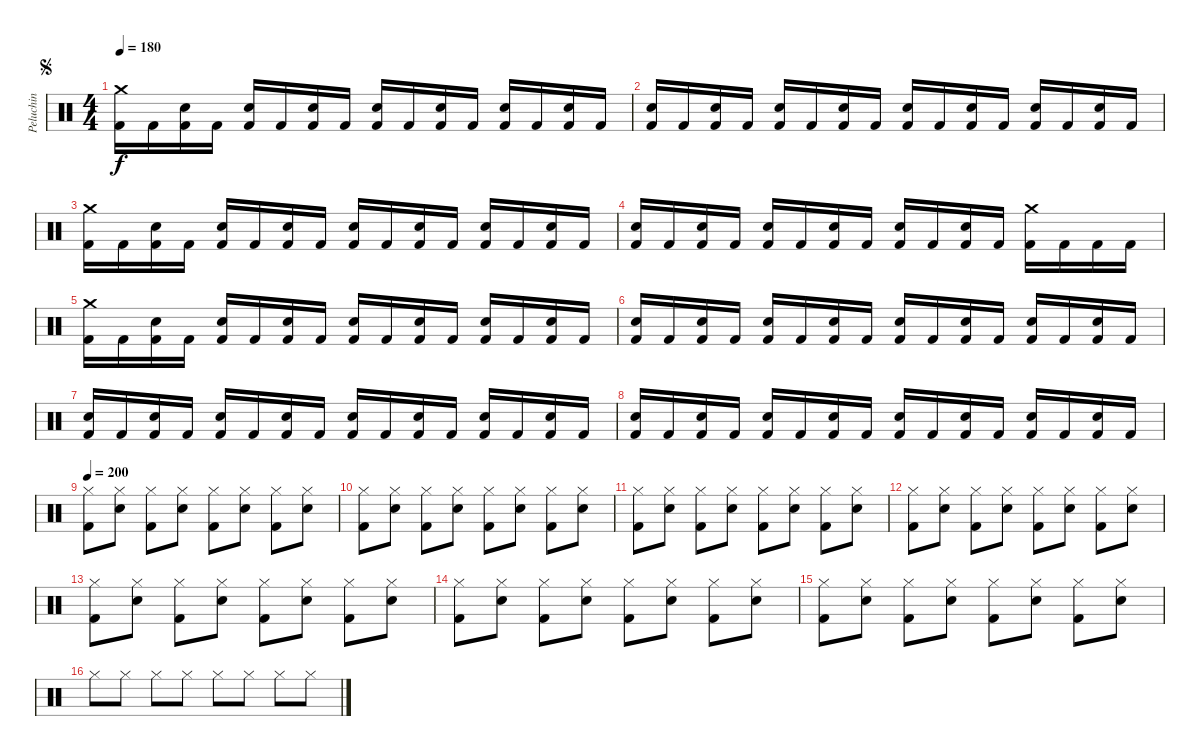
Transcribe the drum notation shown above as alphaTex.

\track ("Peluchin" "Peluchin") {instrument percussion}
\staff {score}
\articulation defaults
\ts (4 4)
\jump segno
\tempo 180
\clef neutral
\ks c
("Kick (hit) 2" "Crash medium (hit)").16{dy f} "Kick (hit) 2".16 ("Kick (hit) 2" "Electric Snare (hit)").16 "Kick (hit) 2".16 ("Kick (hit) 2" "Electric Snare (hit)").16 "Kick (hit) 2".16 ("Kick (hit) 2" "Electric Snare (hit)").16 "Kick (hit) 2".16 ("Kick (hit) 2" "Electric Snare (hit)").16 "Kick (hit) 2".16 ("Kick (hit) 2" "Electric Snare (hit)").16 "Kick (hit) 2".16 ("Kick (hit) 2" "Electric Snare (hit)").16 "Kick (hit) 2".16 ("Kick (hit) 2" "Electric Snare (hit)").16 "Kick (hit) 2".16 |
("Kick (hit) 2" "Electric Snare (hit)").16 "Kick (hit) 2".16 ("Kick (hit) 2" "Electric Snare (hit)").16 "Kick (hit) 2".16 ("Kick (hit) 2" "Electric Snare (hit)").16 "Kick (hit) 2".16 ("Kick (hit) 2" "Electric Snare (hit)").16 "Kick (hit) 2".16 ("Kick (hit) 2" "Electric Snare (hit)").16 "Kick (hit) 2".16 ("Kick (hit) 2" "Electric Snare (hit)").16 "Kick (hit) 2".16 ("Kick (hit) 2" "Electric Snare (hit)").16 "Kick (hit) 2".16 ("Kick (hit) 2" "Electric Snare (hit)").16 "Kick (hit) 2".16 |
("Kick (hit) 2" "Crash medium (hit)").16 "Kick (hit) 2".16 ("Kick (hit) 2" "Electric Snare (hit)").16 "Kick (hit) 2".16 ("Kick (hit) 2" "Electric Snare (hit)").16 "Kick (hit) 2".16 ("Kick (hit) 2" "Electric Snare (hit)").16 "Kick (hit) 2".16 ("Kick (hit) 2" "Electric Snare (hit)").16 "Kick (hit) 2".16 ("Kick (hit) 2" "Electric Snare (hit)").16 "Kick (hit) 2".16 ("Kick (hit) 2" "Electric Snare (hit)").16 "Kick (hit) 2".16 ("Kick (hit) 2" "Electric Snare (hit)").16 "Kick (hit) 2".16 |
("Kick (hit) 2" "Electric Snare (hit)").16 "Kick (hit) 2".16 ("Kick (hit) 2" "Electric Snare (hit)").16 "Kick (hit) 2".16 ("Kick (hit) 2" "Electric Snare (hit)").16 "Kick (hit) 2".16 ("Kick (hit) 2" "Electric Snare (hit)").16 "Kick (hit) 2".16 ("Kick (hit) 2" "Electric Snare (hit)").16 "Kick (hit) 2".16 ("Kick (hit) 2" "Electric Snare (hit)").16 "Kick (hit) 2".16 ("Kick (hit) 2" "Crash medium (hit)").16 "Kick (hit) 2".16 "Kick (hit) 2".16 "Kick (hit) 2".16 |
("Kick (hit) 2" "Crash medium (hit)").16 "Kick (hit) 2".16 ("Kick (hit) 2" "Electric Snare (hit)").16 "Kick (hit) 2".16 ("Kick (hit) 2" "Electric Snare (hit)").16 "Kick (hit) 2".16 ("Kick (hit) 2" "Electric Snare (hit)").16 "Kick (hit) 2".16 ("Kick (hit) 2" "Electric Snare (hit)").16 "Kick (hit) 2".16 ("Kick (hit) 2" "Electric Snare (hit)").16 "Kick (hit) 2".16 ("Kick (hit) 2" "Electric Snare (hit)").16 "Kick (hit) 2".16 ("Kick (hit) 2" "Electric Snare (hit)").16 "Kick (hit) 2".16 |
("Kick (hit) 2" "Electric Snare (hit)").16 "Kick (hit) 2".16 ("Kick (hit) 2" "Electric Snare (hit)").16 "Kick (hit) 2".16 ("Kick (hit) 2" "Electric Snare (hit)").16 "Kick (hit) 2".16 ("Kick (hit) 2" "Electric Snare (hit)").16 "Kick (hit) 2".16 ("Kick (hit) 2" "Electric Snare (hit)").16 "Kick (hit) 2".16 ("Kick (hit) 2" "Electric Snare (hit)").16 "Kick (hit) 2".16 ("Kick (hit) 2" "Electric Snare (hit)").16 "Kick (hit) 2".16 ("Kick (hit) 2" "Electric Snare (hit)").16 "Kick (hit) 2".16 |
("Kick (hit) 2" "Electric Snare (hit)").16 "Kick (hit) 2".16 ("Kick (hit) 2" "Electric Snare (hit)").16 "Kick (hit) 2".16 ("Kick (hit) 2" "Electric Snare (hit)").16 "Kick (hit) 2".16 ("Kick (hit) 2" "Electric Snare (hit)").16 "Kick (hit) 2".16 ("Kick (hit) 2" "Electric Snare (hit)").16 "Kick (hit) 2".16 ("Kick (hit) 2" "Electric Snare (hit)").16 "Kick (hit) 2".16 ("Kick (hit) 2" "Electric Snare (hit)").16 "Kick (hit) 2".16 ("Kick (hit) 2" "Electric Snare (hit)").16 "Kick (hit) 2".16 |
("Kick (hit) 2" "Electric Snare (hit)").16 "Kick (hit) 2".16 ("Kick (hit) 2" "Electric Snare (hit)").16 "Kick (hit) 2".16 ("Kick (hit) 2" "Electric Snare (hit)").16 "Kick (hit) 2".16 ("Kick (hit) 2" "Electric Snare (hit)").16 "Kick (hit) 2".16 ("Kick (hit) 2" "Electric Snare (hit)").16 "Kick (hit) 2".16 ("Kick (hit) 2" "Electric Snare (hit)").16 "Kick (hit) 2".16 ("Kick (hit) 2" "Electric Snare (hit)").16 "Kick (hit) 2".16 ("Kick (hit) 2" "Electric Snare (hit)").16 "Kick (hit) 2".16 |
\tempo 200
("Kick (hit) 2" "Hi-Hat (closed)").8 ("Electric Snare (hit)" "Hi-Hat (closed)").8 ("Kick (hit) 2" "Hi-Hat (closed)").8 ("Electric Snare (hit)" "Hi-Hat (closed)").8 ("Kick (hit) 2" "Hi-Hat (closed)").8 ("Electric Snare (hit)" "Hi-Hat (closed)").8 ("Kick (hit) 2" "Hi-Hat (closed)").8 ("Electric Snare (hit)" "Hi-Hat (closed)").8 |
("Kick (hit) 2" "Hi-Hat (closed)").8 ("Electric Snare (hit)" "Hi-Hat (closed)").8 ("Kick (hit) 2" "Hi-Hat (closed)").8 ("Electric Snare (hit)" "Hi-Hat (closed)").8 ("Kick (hit) 2" "Hi-Hat (closed)").8 ("Electric Snare (hit)" "Hi-Hat (closed)").8 ("Kick (hit) 2" "Hi-Hat (closed)").8 ("Electric Snare (hit)" "Hi-Hat (closed)").8 |
("Kick (hit) 2" "Hi-Hat (closed)").8 ("Electric Snare (hit)" "Hi-Hat (closed)").8 ("Kick (hit) 2" "Hi-Hat (closed)").8 ("Electric Snare (hit)" "Hi-Hat (closed)").8 ("Kick (hit) 2" "Hi-Hat (closed)").8 ("Electric Snare (hit)" "Hi-Hat (closed)").8 ("Kick (hit) 2" "Hi-Hat (closed)").8 ("Electric Snare (hit)" "Hi-Hat (closed)").8 |
("Kick (hit) 2" "Hi-Hat (closed)").8 ("Electric Snare (hit)" "Hi-Hat (closed)").8 ("Kick (hit) 2" "Hi-Hat (closed)").8 ("Electric Snare (hit)" "Hi-Hat (closed)").8 ("Kick (hit) 2" "Hi-Hat (closed)").8 ("Electric Snare (hit)" "Hi-Hat (closed)").8 ("Kick (hit) 2" "Hi-Hat (closed)").8 ("Electric Snare (hit)" "Hi-Hat (closed)").8 |
("Kick (hit) 2" "Hi-Hat (closed)").8 ("Electric Snare (hit)" "Hi-Hat (closed)").8 ("Kick (hit) 2" "Hi-Hat (closed)").8 ("Electric Snare (hit)" "Hi-Hat (closed)").8 ("Kick (hit) 2" "Hi-Hat (closed)").8 ("Electric Snare (hit)" "Hi-Hat (closed)").8 ("Kick (hit) 2" "Hi-Hat (closed)").8 ("Electric Snare (hit)" "Hi-Hat (closed)").8 |
("Kick (hit) 2" "Hi-Hat (closed)").8 ("Electric Snare (hit)" "Hi-Hat (closed)").8 ("Kick (hit) 2" "Hi-Hat (closed)").8 ("Electric Snare (hit)" "Hi-Hat (closed)").8 ("Kick (hit) 2" "Hi-Hat (closed)").8 ("Electric Snare (hit)" "Hi-Hat (closed)").8 ("Kick (hit) 2" "Hi-Hat (closed)").8 ("Electric Snare (hit)" "Hi-Hat (closed)").8 |
("Kick (hit) 2" "Hi-Hat (closed)").8 ("Electric Snare (hit)" "Hi-Hat (closed)").8 ("Kick (hit) 2" "Hi-Hat (closed)").8 ("Electric Snare (hit)" "Hi-Hat (closed)").8 ("Kick (hit) 2" "Hi-Hat (closed)").8 ("Electric Snare (hit)" "Hi-Hat (closed)").8 ("Kick (hit) 2" "Hi-Hat (closed)").8 ("Electric Snare (hit)" "Hi-Hat (closed)").8 |
"Hi-Hat (closed)".8 "Hi-Hat (closed)".8 "Hi-Hat (closed)".8 "Hi-Hat (closed)".8 "Hi-Hat (closed)".8 "Hi-Hat (closed)".8 "Hi-Hat (closed)".8 "Hi-Hat (closed)".8
